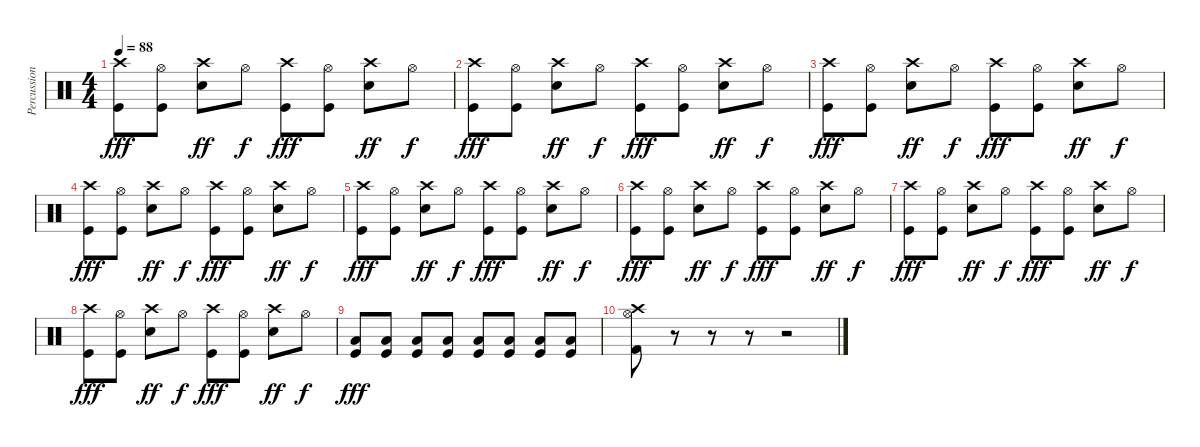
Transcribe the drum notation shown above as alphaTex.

\track ("Percussions" "Percussion") {instrument percussion}
\staff {score}
\articulation defaults
\ts (4 4)
\tempo 88
\clef neutral
\ks c
("Crash high (hit)" "Kick (hit)").8{dy fff} ("Hi-Hat (open)" "Kick (hit)").8 ("Crash high (hit)" "Snare (hit) 2").8{dy ff} "Hi-Hat (open)".8{dy f} ("Crash high (hit)" "Kick (hit)").8{dy fff} ("Hi-Hat (open)" "Kick (hit)").8 ("Crash high (hit)" "Snare (hit) 2").8{dy ff} "Hi-Hat (open)".8{dy f} |
("Crash high (hit)" "Kick (hit)").8{dy fff} ("Hi-Hat (open)" "Kick (hit)").8 ("Crash high (hit)" "Snare (hit) 2").8{dy ff} "Hi-Hat (open)".8{dy f} ("Crash high (hit)" "Kick (hit)").8{dy fff} ("Hi-Hat (open)" "Kick (hit)").8 ("Crash high (hit)" "Snare (hit) 2").8{dy ff} "Hi-Hat (open)".8{dy f} |
("Crash high (hit)" "Kick (hit)").8{dy fff} ("Hi-Hat (open)" "Kick (hit)").8 ("Crash high (hit)" "Snare (hit) 2").8{dy ff} "Hi-Hat (open)".8{dy f} ("Crash high (hit)" "Kick (hit)").8{dy fff} ("Hi-Hat (open)" "Kick (hit)").8 ("Crash high (hit)" "Snare (hit) 2").8{dy ff} "Hi-Hat (open)".8{dy f} |
("Crash high (hit)" "Kick (hit)").8{dy fff} ("Hi-Hat (open)" "Kick (hit)").8 ("Crash high (hit)" "Snare (hit) 2").8{dy ff} "Hi-Hat (open)".8{dy f} ("Crash high (hit)" "Kick (hit)").8{dy fff} ("Hi-Hat (open)" "Kick (hit)").8 ("Crash high (hit)" "Snare (hit) 2").8{dy ff} "Hi-Hat (open)".8{dy f} |
("Crash high (hit)" "Kick (hit)").8{dy fff} ("Hi-Hat (open)" "Kick (hit)").8 ("Crash high (hit)" "Snare (hit) 2").8{dy ff} "Hi-Hat (open)".8{dy f} ("Crash high (hit)" "Kick (hit)").8{dy fff} ("Hi-Hat (open)" "Kick (hit)").8 ("Crash high (hit)" "Snare (hit) 2").8{dy ff} "Hi-Hat (open)".8{dy f} |
("Crash high (hit)" "Kick (hit)").8{dy fff} ("Hi-Hat (open)" "Kick (hit)").8 ("Crash high (hit)" "Snare (hit) 2").8{dy ff} "Hi-Hat (open)".8{dy f} ("Crash high (hit)" "Kick (hit)").8{dy fff} ("Hi-Hat (open)" "Kick (hit)").8 ("Crash high (hit)" "Snare (hit) 2").8{dy ff} "Hi-Hat (open)".8{dy f} |
("Crash high (hit)" "Kick (hit)").8{dy fff} ("Hi-Hat (open)" "Kick (hit)").8 ("Crash high (hit)" "Snare (hit) 2").8{dy ff} "Hi-Hat (open)".8{dy f} ("Crash high (hit)" "Kick (hit)").8{dy fff} ("Hi-Hat (open)" "Kick (hit)").8 ("Crash high (hit)" "Snare (hit) 2").8{dy ff} "Hi-Hat (open)".8{dy f} |
("Crash high (hit)" "Kick (hit)").8{dy fff} ("Hi-Hat (open)" "Kick (hit)").8 ("Crash high (hit)" "Snare (hit) 2").8{dy ff} "Hi-Hat (open)".8{dy f} ("Crash high (hit)" "Kick (hit)").8{dy fff} ("Hi-Hat (open)" "Kick (hit)").8 ("Crash high (hit)" "Snare (hit) 2").8{dy ff} "Hi-Hat (open)".8{dy f} |
("Low Floor Tom (hit)" "Kick (hit)").8{dy fff} ("Low Floor Tom (hit)" "Kick (hit)").8 ("Low Floor Tom (hit)" "Kick (hit)").8 ("Low Floor Tom (hit)" "Kick (hit)").8 ("Low Floor Tom (hit)" "Kick (hit)").8 ("Low Floor Tom (hit)" "Kick (hit)").8 ("Low Floor Tom (hit)" "Kick (hit)").8 ("Low Floor Tom (hit)" "Kick (hit)").8 |
("Crash high (hit)" "Hi-Hat (open)" "Kick (hit) 2").8 r.8 r.8 r.8 r.2
